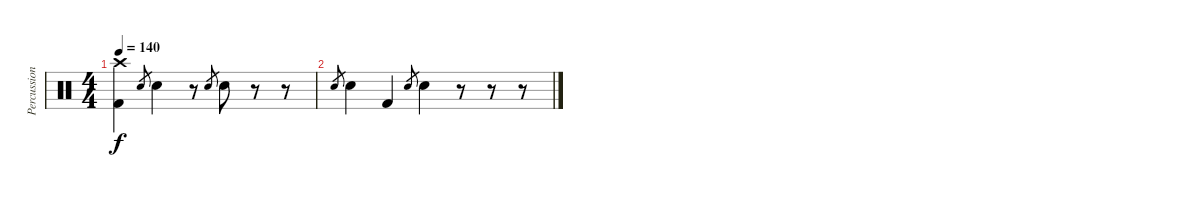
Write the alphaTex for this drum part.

\track ("Percussion" "Percussion") {instrument percussion}
\staff {score}
\articulation defaults
\ts (4 4)
\tempo 140
\clef neutral
\ks c
("Crash high (hit)" "Kick (hit) 2").4{dy f} "Electric Snare (hit)".8{gr} "Electric Snare (hit)".4 r.8 "Electric Snare (hit)".8{gr} "Electric Snare (hit)".8 r.8 r.8 |
"Electric Snare (hit)".8{gr} "Electric Snare (hit)".4 "Kick (hit) 2".4 "Electric Snare (hit)".8{gr} "Electric Snare (hit)".4 r.8 r.8 r.8
